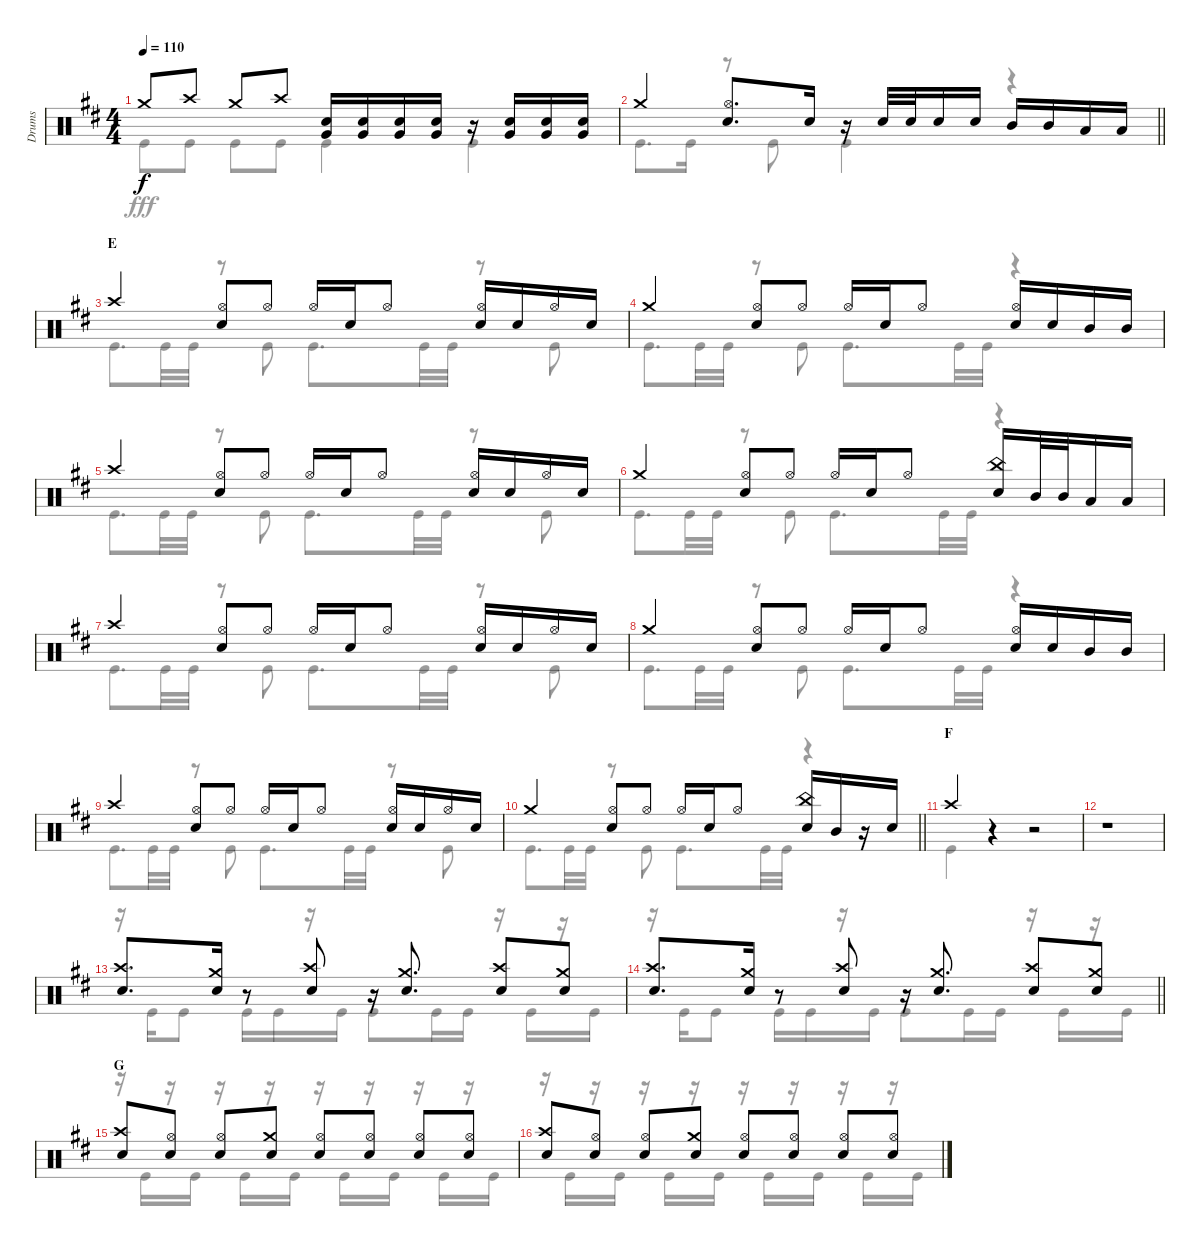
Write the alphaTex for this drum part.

\track ("Drums" "Drums") {instrument percussion}
\staff {score}
\articulation defaults
\voice
\ts (4 4)
\tempo 110
\clef neutral
\ks d "Crash medium (hit)".8{dy f} "Crash high (hit)".8 "Crash medium (hit)".8 "Crash high (hit)".8
("Snare (hit) 2" "Very Low Tom (hit)").16 ("Snare (hit) 2" "Very Low Tom (hit)").16 ("Snare (hit) 2" "Very Low Tom (hit)").16 ("Snare (hit) 2" "Very Low Tom (hit)").16 r.16 ("Snare (hit) 2" "Very Low Tom (hit)").16 ("Snare (hit) 2" "Very Low Tom (hit)").16 ("Snare (hit) 2" "Very Low Tom (hit)").16 |
\barLineRight lightlight "Crash medium (hit)".4
("Hi-Hat (open)" "Snare (hit) 2").8{d} "Snare (hit) 2".16 r.16 "Snare (hit) 2".32 "Snare (hit) 2".32 "Snare (hit) 2".16 "Snare (hit) 2".16 "Mid Tom (hit)".16 "Mid Tom (hit)".16 "Low Tom (hit)".16 "Low Tom (hit)".16 |
\section ("" "E")
"Crash high (hit)".4 ("Hi-Hat (open)" "Snare (hit) 2").8 "Hi-Hat (open)".8 "Hi-Hat (open)".16 "Snare (hit) 2".16 "Hi-Hat (open)".8 ("Hi-Hat (open)" "Snare (hit) 2").16 "Snare (hit) 2".16 "Hi-Hat (open)".16 "Snare (hit) 2".16 |
"Crash medium (hit)".4 ("Hi-Hat (open)" "Snare (hit) 2").8 "Hi-Hat (open)".8 "Hi-Hat (open)".16 "Snare (hit) 2".16 "Hi-Hat (open)".8 ("Hi-Hat (open)" "Snare (hit) 2").16 "Snare (hit) 2".16 "Mid Tom (hit)".16 "Mid Tom (hit)".16 |
"Crash high (hit)".4 ("Hi-Hat (open)" "Snare (hit) 2").8 "Hi-Hat (open)".8 "Hi-Hat (open)".16 "Snare (hit) 2".16 "Hi-Hat (open)".8 ("Hi-Hat (open)" "Snare (hit) 2").16 "Snare (hit) 2".16 "Hi-Hat (open)".16 "Snare (hit) 2".16 |
"Crash medium (hit)".4 ("Hi-Hat (open)" "Snare (hit) 2").8 "Hi-Hat (open)".8 "Hi-Hat (open)".16 "Snare (hit) 2".16 "Hi-Hat (open)".8 ("China (hit)" "Snare (hit) 2").16 "Mid Tom (hit)".32 "Mid Tom (hit)".32 "Low Tom (hit)".16 "Low Tom (hit)".16 |
"Crash high (hit)".4 ("Hi-Hat (open)" "Snare (hit) 2").8 "Hi-Hat (open)".8 "Hi-Hat (open)".16 "Snare (hit) 2".16 "Hi-Hat (open)".8 ("Hi-Hat (open)" "Snare (hit) 2").16 "Snare (hit) 2".16 "Hi-Hat (open)".16 "Snare (hit) 2".16 |
"Crash medium (hit)".4 ("Hi-Hat (open)" "Snare (hit) 2").8 "Hi-Hat (open)".8 "Hi-Hat (open)".16 "Snare (hit) 2".16 "Hi-Hat (open)".8 ("Hi-Hat (open)" "Snare (hit) 2").16 "Snare (hit) 2".16 "Mid Tom (hit)".16 "Mid Tom (hit)".16 |
"Crash high (hit)".4 ("Hi-Hat (open)" "Snare (hit) 2").8 "Hi-Hat (open)".8 "Hi-Hat (open)".16 "Snare (hit) 2".16 "Hi-Hat (open)".8 ("Hi-Hat (open)" "Snare (hit) 2").16 "Snare (hit) 2".16 "Hi-Hat (open)".16 "Snare (hit) 2".16 |
\barLineRight lightlight "Crash medium (hit)".4
("Hi-Hat (open)" "Snare (hit) 2").8 "Hi-Hat (open)".8 "Hi-Hat (open)".16 "Snare (hit) 2".16 "Hi-Hat (open)".8 ("China (hit)" "Snare (hit) 2").16 "Mid Tom (hit)".16 r.16 "Snare (hit) 2".16 |
\section ("" "F")
"Crash high (hit)".4 r.4 r.2 |
r.1 |
("Crash high (hit)" "Snare (hit) 2").8{d} ("Crash medium (hit)" "Snare (hit) 2").16 r.8 ("Crash high (hit)" "Snare (hit) 2").8 r.16 ("Crash medium (hit)" "Snare (hit) 2").8{d} ("Crash high (hit)" "Snare (hit) 2").8 ("Crash medium (hit)" "Snare (hit) 2").8 |
\barLineRight lightlight
("Crash high (hit)" "Snare (hit) 2").8{d} ("Crash medium (hit)" "Snare (hit) 2").16 r.8 ("Crash high (hit)" "Snare (hit) 2").8 r.16 ("Crash medium (hit)" "Snare (hit) 2").8{d} ("Crash high (hit)" "Snare (hit) 2").8 ("Crash medium (hit)" "Snare (hit) 2").8 |
\section ("" "G")
("Crash high (hit)" "Snare (hit) 2").8 ("Hi-Hat (open)" "Snare (hit) 2").8 ("Hi-Hat (open)" "Snare (hit) 2").8 ("Crash medium (hit)" "Snare (hit) 2").8 ("Hi-Hat (open)" "Snare (hit) 2").8 ("Hi-Hat (open)" "Snare (hit) 2").8 ("Hi-Hat (open)" "Snare (hit) 2").8 ("Hi-Hat (open)" "Snare (hit) 2").8 |
("Crash high (hit)" "Snare (hit) 2").8 ("Hi-Hat (open)" "Snare (hit) 2").8 ("Hi-Hat (open)" "Snare (hit) 2").8 ("Crash medium (hit)" "Snare (hit) 2").8 ("Hi-Hat (open)" "Snare (hit) 2").8 ("Hi-Hat (open)" "Snare (hit) 2").8 ("Hi-Hat (open)" "Snare (hit) 2").8 ("Hi-Hat (open)" "Snare (hit) 2").8
\voice
\clef neutral
\ottava regular
\simile none
\ks d "Kick (hit)".8{dy fff} "Kick (hit)".8 "Kick (hit)".8 "Kick (hit)".8 "Kick (hit)".4 "Kick (hit)".4
|
\barLineRight lightlight "Kick (hit)".8{d} "Kick (hit)".16
r.8 "Kick (hit)".8 "Kick (hit)".4 r.4 |
"Kick (hit)".8{d} "Kick (hit)".32 "Kick (hit)".32 r.8 "Kick (hit)".8 "Kick (hit)".8{d} "Kick (hit)".32 "Kick (hit)".32 r.8 "Kick (hit)".8 |
"Kick (hit)".8{d} "Kick (hit)".32 "Kick (hit)".32 r.8 "Kick (hit)".8 "Kick (hit)".8{d} "Kick (hit)".32 "Kick (hit)".32 r.4 |
"Kick (hit)".8{d} "Kick (hit)".32 "Kick (hit)".32 r.8 "Kick (hit)".8 "Kick (hit)".8{d} "Kick (hit)".32 "Kick (hit)".32 r.8 "Kick (hit)".8 |
"Kick (hit)".8{d} "Kick (hit)".32 "Kick (hit)".32 r.8 "Kick (hit)".8 "Kick (hit)".8{d} "Kick (hit)".32 "Kick (hit)".32 r.4 |
"Kick (hit)".8{d} "Kick (hit)".32 "Kick (hit)".32 r.8 "Kick (hit)".8 "Kick (hit)".8{d} "Kick (hit)".32 "Kick (hit)".32 r.8 "Kick (hit)".8 |
"Kick (hit)".8{d} "Kick (hit)".32 "Kick (hit)".32 r.8 "Kick (hit)".8 "Kick (hit)".8{d} "Kick (hit)".32 "Kick (hit)".32 r.4 |
"Kick (hit)".8{d} "Kick (hit)".32 "Kick (hit)".32 r.8 "Kick (hit)".8 "Kick (hit)".8{d} "Kick (hit)".32 "Kick (hit)".32 r.8 "Kick (hit)".8 |
\barLineRight lightlight "Kick (hit)".8{d} "Kick (hit)".32 "Kick (hit)".32
r.8 "Kick (hit)".8 "Kick (hit)".8{d} "Kick (hit)".32 "Kick (hit)".32 r.4 |
"Kick (hit)".4 r.4 r.2 |
r.1 |
r.16 "Kick (hit)".16 "Kick (hit)".8 "Kick (hit)".16 "Kick (hit)".16 r.16 "Kick (hit)".16 "Kick (hit)".8 "Kick (hit)".16 "Kick (hit)".16 r.16 "Kick (hit)".16 r.16 "Kick (hit)".16 |
\barLineRight lightlight
r.16 "Kick (hit)".16 "Kick (hit)".8 "Kick (hit)".16 "Kick (hit)".16 r.16 "Kick (hit)".16 "Kick (hit)".8 "Kick (hit)".16 "Kick (hit)".16 r.16 "Kick (hit)".16 r.16 "Kick (hit)".16 |
r.16 "Kick (hit)".16 r.16 "Kick (hit)".16 r.16 "Kick (hit)".16 r.16 "Kick (hit)".16 r.16 "Kick (hit)".16 r.16 "Kick (hit)".16 r.16 "Kick (hit)".16 r.16 "Kick (hit)".16 |
r.16 "Kick (hit)".16 r.16 "Kick (hit)".16 r.16 "Kick (hit)".16 r.16 "Kick (hit)".16 r.16 "Kick (hit)".16 r.16 "Kick (hit)".16 r.16 "Kick (hit)".16 r.16 "Kick (hit)".16
